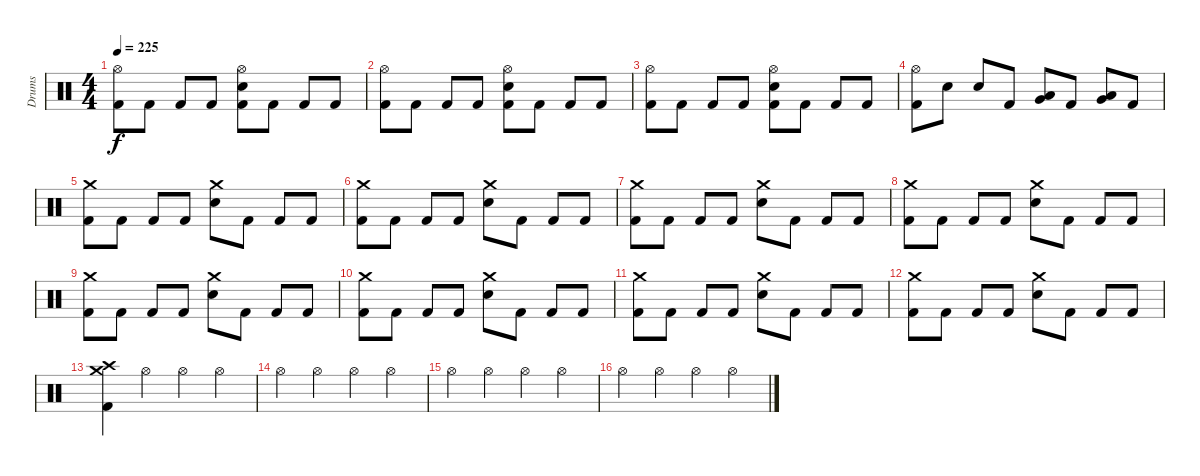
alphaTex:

\track ("Drums" "Drums") {instrument percussion}
\staff {score}
\articulation defaults
\ts (4 4)
\tempo 225
\clef neutral
\ks c
("Hi-Hat (open)" "Kick (hit) 2").8{dy f} "Kick (hit) 2".8 "Kick (hit) 2".8 "Kick (hit) 2".8 ("Hi-Hat (open)" "Electric Snare (hit)" "Kick (hit) 2").8 "Kick (hit) 2".8 "Kick (hit) 2".8 "Kick (hit) 2".8 |
("Hi-Hat (open)" "Kick (hit) 2").8 "Kick (hit) 2".8 "Kick (hit) 2".8 "Kick (hit) 2".8 ("Hi-Hat (open)" "Electric Snare (hit)" "Kick (hit) 2").8 "Kick (hit) 2".8 "Kick (hit) 2".8 "Kick (hit) 2".8 |
("Hi-Hat (open)" "Kick (hit) 2").8 "Kick (hit) 2".8 "Kick (hit) 2".8 "Kick (hit) 2".8 ("Hi-Hat (open)" "Electric Snare (hit)" "Kick (hit) 2").8 "Kick (hit) 2".8 "Kick (hit) 2".8 "Kick (hit) 2".8 |
("Hi-Hat (open)" "Kick (hit) 2").8 "Electric Snare (hit)".8 "Electric Snare (hit)".8 "Kick (hit) 2".8 ("Low Tom (hit)" "Very Low Tom (hit)").8 "Kick (hit) 2".8 ("Low Tom (hit)" "Very Low Tom (hit)").8 "Kick (hit) 2".8 |
("Crash medium (hit)" "Kick (hit) 2").8 "Kick (hit) 2".8 "Kick (hit) 2".8 "Kick (hit) 2".8 ("Crash medium (hit)" "Electric Snare (hit)").8 "Kick (hit) 2".8 "Kick (hit) 2".8 "Kick (hit) 2".8 |
("Crash medium (hit)" "Kick (hit) 2").8 "Kick (hit) 2".8 "Kick (hit) 2".8 "Kick (hit) 2".8 ("Crash medium (hit)" "Electric Snare (hit)").8 "Kick (hit) 2".8 "Kick (hit) 2".8 "Kick (hit) 2".8 |
("Crash medium (hit)" "Kick (hit) 2").8 "Kick (hit) 2".8 "Kick (hit) 2".8 "Kick (hit) 2".8 ("Crash medium (hit)" "Electric Snare (hit)").8 "Kick (hit) 2".8 "Kick (hit) 2".8 "Kick (hit) 2".8 |
("Crash medium (hit)" "Kick (hit) 2").8 "Kick (hit) 2".8 "Kick (hit) 2".8 "Kick (hit) 2".8 ("Crash medium (hit)" "Electric Snare (hit)").8 "Kick (hit) 2".8 "Kick (hit) 2".8 "Kick (hit) 2".8 |
("Crash medium (hit)" "Kick (hit) 2").8 "Kick (hit) 2".8 "Kick (hit) 2".8 "Kick (hit) 2".8 ("Crash medium (hit)" "Electric Snare (hit)").8 "Kick (hit) 2".8 "Kick (hit) 2".8 "Kick (hit) 2".8 |
("Crash medium (hit)" "Kick (hit) 2").8 "Kick (hit) 2".8 "Kick (hit) 2".8 "Kick (hit) 2".8 ("Crash medium (hit)" "Electric Snare (hit)").8 "Kick (hit) 2".8 "Kick (hit) 2".8 "Kick (hit) 2".8 |
("Crash medium (hit)" "Kick (hit) 2").8 "Kick (hit) 2".8 "Kick (hit) 2".8 "Kick (hit) 2".8 ("Crash medium (hit)" "Electric Snare (hit)").8 "Kick (hit) 2".8 "Kick (hit) 2".8 "Kick (hit) 2".8 |
("Crash medium (hit)" "Kick (hit) 2").8 "Kick (hit) 2".8 "Kick (hit) 2".8 "Kick (hit) 2".8 ("Crash medium (hit)" "Electric Snare (hit)").8 "Kick (hit) 2".8 "Kick (hit) 2".8 "Kick (hit) 2".8 |
("Crash high (hit)" "Crash medium (hit)" "Kick (hit) 2").4 "Hi-Hat (open)".4 "Hi-Hat (open)".4 "Hi-Hat (open)".4 |
"Hi-Hat (open)".4 "Hi-Hat (open)".4 "Hi-Hat (open)".4 "Hi-Hat (open)".4 |
"Hi-Hat (open)".4 "Hi-Hat (open)".4 "Hi-Hat (open)".4 "Hi-Hat (open)".4 |
"Hi-Hat (open)".4 "Hi-Hat (open)".4 "Hi-Hat (open)".4 "Hi-Hat (open)".4
